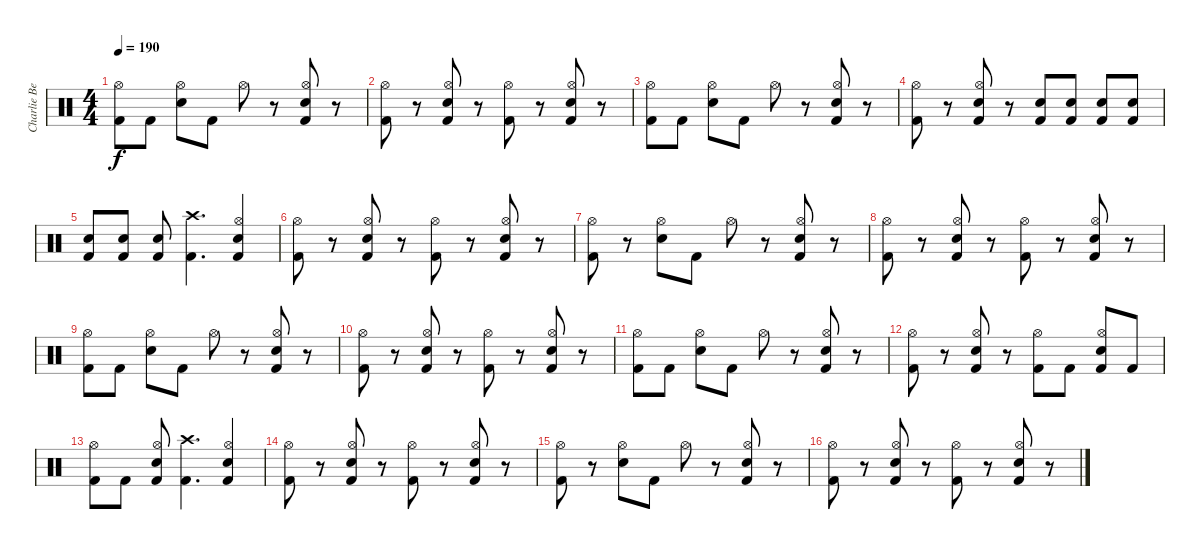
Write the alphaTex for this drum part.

\track ("Charlie Benante" "Charlie Be") {instrument percussion}
\staff {score}
\articulation defaults
\ts (4 4)
\tempo 190
\clef neutral
\ks c
("Kick (hit) 2" "Hi-Hat (open)").8{dy f} "Kick (hit) 2".8 ("Snare (hit) 2" "Hi-Hat (open)").8 "Kick (hit) 2".8 "Hi-Hat (open)".8 r.8 ("Kick (hit) 2" "Snare (hit) 2" "Hi-Hat (open)").8 r.8 |
("Kick (hit) 2" "Hi-Hat (open)").8 r.8 ("Kick (hit) 2" "Snare (hit) 2" "Hi-Hat (open)").8 r.8 ("Kick (hit) 2" "Hi-Hat (open)").8 r.8 ("Kick (hit) 2" "Snare (hit) 2" "Hi-Hat (open)").8 r.8 |
("Kick (hit) 2" "Hi-Hat (open)").8 "Kick (hit) 2".8 ("Snare (hit) 2" "Hi-Hat (open)").8 "Kick (hit) 2".8 "Hi-Hat (open)".8 r.8 ("Kick (hit) 2" "Snare (hit) 2" "Hi-Hat (open)").8 r.8 |
("Kick (hit) 2" "Hi-Hat (open)").8 r.8 ("Kick (hit) 2" "Snare (hit) 2" "Hi-Hat (open)").8 r.8 ("Snare (hit) 2" "Kick (hit) 2").8 ("Snare (hit) 2" "Kick (hit) 2").8 ("Snare (hit) 2" "Kick (hit) 2").8 ("Snare (hit) 2" "Kick (hit) 2").8 |
("Snare (hit) 2" "Kick (hit) 2").8 ("Snare (hit) 2" "Kick (hit) 2").8 ("Snare (hit) 2" "Kick (hit) 2").8 ("Kick (hit) 2" "Crash high (hit)").4{d} ("Kick (hit) 2" "Snare (hit) 2" "Hi-Hat (open)").4 |
("Kick (hit) 2" "Hi-Hat (open)").8 r.8 ("Kick (hit) 2" "Snare (hit) 2" "Hi-Hat (open)").8 r.8 ("Kick (hit) 2" "Hi-Hat (open)").8 r.8 ("Kick (hit) 2" "Snare (hit) 2" "Hi-Hat (open)").8 r.8 |
("Kick (hit) 2" "Hi-Hat (open)").8 r.8 ("Snare (hit) 2" "Hi-Hat (open)").8 "Kick (hit) 2".8 "Hi-Hat (open)".8 r.8 ("Kick (hit) 2" "Snare (hit) 2" "Hi-Hat (open)").8 r.8 |
("Kick (hit) 2" "Hi-Hat (open)").8 r.8 ("Kick (hit) 2" "Snare (hit) 2" "Hi-Hat (open)").8 r.8 ("Kick (hit) 2" "Hi-Hat (open)").8 r.8 ("Kick (hit) 2" "Snare (hit) 2" "Hi-Hat (open)").8 r.8 |
("Kick (hit) 2" "Hi-Hat (open)").8 "Kick (hit) 2".8 ("Snare (hit) 2" "Hi-Hat (open)").8 "Kick (hit) 2".8 "Hi-Hat (open)".8 r.8 ("Kick (hit) 2" "Snare (hit) 2" "Hi-Hat (open)").8 r.8 |
("Kick (hit) 2" "Hi-Hat (open)").8 r.8 ("Kick (hit) 2" "Snare (hit) 2" "Hi-Hat (open)").8 r.8 ("Kick (hit) 2" "Hi-Hat (open)").8 r.8 ("Kick (hit) 2" "Snare (hit) 2" "Hi-Hat (open)").8 r.8 |
("Kick (hit) 2" "Hi-Hat (open)").8 "Kick (hit) 2".8 ("Snare (hit) 2" "Hi-Hat (open)").8 "Kick (hit) 2".8 "Hi-Hat (open)".8 r.8 ("Kick (hit) 2" "Snare (hit) 2" "Hi-Hat (open)").8 r.8 |
("Kick (hit) 2" "Hi-Hat (open)").8 r.8 ("Kick (hit) 2" "Snare (hit) 2" "Hi-Hat (open)").8 r.8 ("Kick (hit) 2" "Hi-Hat (open)").8 "Kick (hit) 2".8 ("Kick (hit) 2" "Snare (hit) 2" "Hi-Hat (open)").8 "Kick (hit) 2".8 |
("Kick (hit) 2" "Hi-Hat (open)").8 "Kick (hit) 2".8 ("Kick (hit) 2" "Snare (hit) 2" "Hi-Hat (open)").8 ("Kick (hit) 2" "Crash high (hit)").4{d} ("Kick (hit) 2" "Snare (hit) 2" "Hi-Hat (open)").4 |
("Kick (hit) 2" "Hi-Hat (open)").8 r.8 ("Kick (hit) 2" "Snare (hit) 2" "Hi-Hat (open)").8 r.8 ("Kick (hit) 2" "Hi-Hat (open)").8 r.8 ("Kick (hit) 2" "Snare (hit) 2" "Hi-Hat (open)").8 r.8 |
("Kick (hit) 2" "Hi-Hat (open)").8 r.8 ("Snare (hit) 2" "Hi-Hat (open)").8 "Kick (hit) 2".8 "Hi-Hat (open)".8 r.8 ("Kick (hit) 2" "Snare (hit) 2" "Hi-Hat (open)").8 r.8 |
("Kick (hit) 2" "Hi-Hat (open)").8 r.8 ("Kick (hit) 2" "Snare (hit) 2" "Hi-Hat (open)").8 r.8 ("Kick (hit) 2" "Hi-Hat (open)").8 r.8 ("Kick (hit) 2" "Snare (hit) 2" "Hi-Hat (open)").8 r.8
